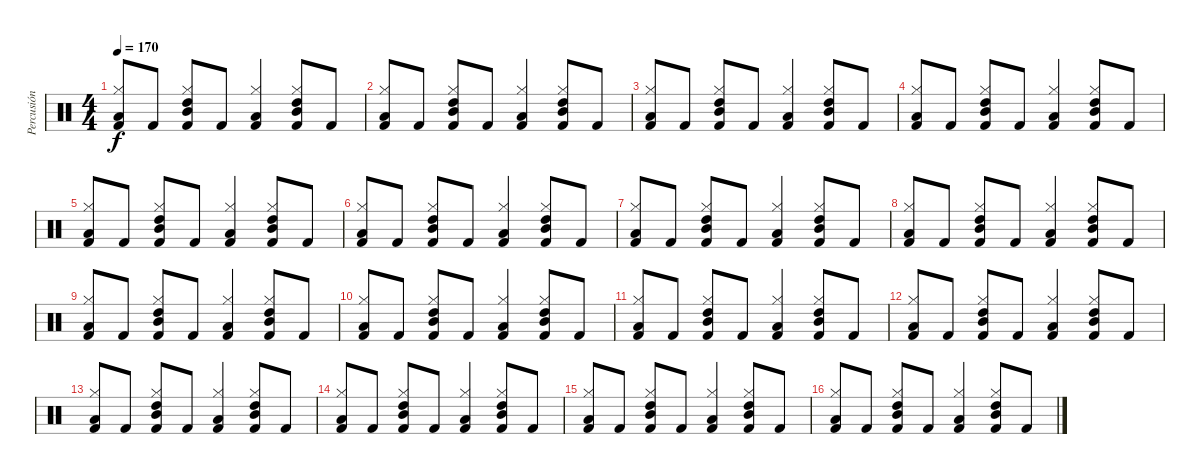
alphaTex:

\track ("Percusión" "Percusión") {instrument percussion}
\staff {score}
\articulation defaults
\ts (4 4)
\tempo 170
\clef neutral
\ks c
("Kick (hit) 2" "Hi-Hat (closed)" "Low Floor Tom (hit)").8{dy f} "Kick (hit) 2".8 ("Kick (hit) 2" "Hi-Hat (closed)" "Mid Tom (hit)" "High Tom (hit)").8 "Kick (hit) 2".8 ("Kick (hit) 2" "Hi-Hat (closed)" "Low Floor Tom (hit)").4 ("Kick (hit) 2" "Hi-Hat (closed)" "Mid Tom (hit)" "High Tom (hit)").8 "Kick (hit) 2".8 |
("Kick (hit) 2" "Hi-Hat (closed)" "Low Floor Tom (hit)").8 "Kick (hit) 2".8 ("Kick (hit) 2" "Hi-Hat (closed)" "Mid Tom (hit)" "High Tom (hit)").8 "Kick (hit) 2".8 ("Kick (hit) 2" "Hi-Hat (closed)" "Low Floor Tom (hit)").4 ("Kick (hit) 2" "Hi-Hat (closed)" "Mid Tom (hit)" "High Tom (hit)").8 "Kick (hit) 2".8 |
("Kick (hit) 2" "Hi-Hat (closed)" "Low Floor Tom (hit)").8 "Kick (hit) 2".8 ("Kick (hit) 2" "Hi-Hat (closed)" "Mid Tom (hit)" "High Tom (hit)").8 "Kick (hit) 2".8 ("Kick (hit) 2" "Hi-Hat (closed)" "Low Floor Tom (hit)").4 ("Kick (hit) 2" "Hi-Hat (closed)" "Mid Tom (hit)" "High Tom (hit)").8 "Kick (hit) 2".8 |
("Kick (hit) 2" "Hi-Hat (closed)" "Low Floor Tom (hit)").8 "Kick (hit) 2".8 ("Kick (hit) 2" "Hi-Hat (closed)" "Mid Tom (hit)" "High Tom (hit)").8 "Kick (hit) 2".8 ("Kick (hit) 2" "Hi-Hat (closed)" "Low Floor Tom (hit)").4 ("Kick (hit) 2" "Hi-Hat (closed)" "Mid Tom (hit)" "High Tom (hit)").8 "Kick (hit) 2".8 |
("Kick (hit) 2" "Hi-Hat (closed)" "Low Floor Tom (hit)").8 "Kick (hit) 2".8 ("Kick (hit) 2" "Hi-Hat (closed)" "Mid Tom (hit)" "High Tom (hit)").8 "Kick (hit) 2".8 ("Kick (hit) 2" "Hi-Hat (closed)" "Low Floor Tom (hit)").4 ("Kick (hit) 2" "Hi-Hat (closed)" "Mid Tom (hit)" "High Tom (hit)").8 "Kick (hit) 2".8 |
("Kick (hit) 2" "Hi-Hat (closed)" "Low Floor Tom (hit)").8 "Kick (hit) 2".8 ("Kick (hit) 2" "Hi-Hat (closed)" "Mid Tom (hit)" "High Tom (hit)").8 "Kick (hit) 2".8 ("Kick (hit) 2" "Hi-Hat (closed)" "Low Floor Tom (hit)").4 ("Kick (hit) 2" "Hi-Hat (closed)" "Mid Tom (hit)" "High Tom (hit)").8 "Kick (hit) 2".8 |
("Kick (hit) 2" "Hi-Hat (closed)" "Low Floor Tom (hit)").8 "Kick (hit) 2".8 ("Kick (hit) 2" "Hi-Hat (closed)" "Mid Tom (hit)" "High Tom (hit)").8 "Kick (hit) 2".8 ("Kick (hit) 2" "Hi-Hat (closed)" "Low Floor Tom (hit)").4 ("Kick (hit) 2" "Hi-Hat (closed)" "Mid Tom (hit)" "High Tom (hit)").8 "Kick (hit) 2".8 |
("Kick (hit) 2" "Hi-Hat (closed)" "Low Floor Tom (hit)").8 "Kick (hit) 2".8 ("Kick (hit) 2" "Hi-Hat (closed)" "Mid Tom (hit)" "High Tom (hit)").8 "Kick (hit) 2".8 ("Kick (hit) 2" "Hi-Hat (closed)" "Low Floor Tom (hit)").4 ("Kick (hit) 2" "Hi-Hat (closed)" "Mid Tom (hit)" "High Tom (hit)").8 "Kick (hit) 2".8 |
("Kick (hit) 2" "Hi-Hat (closed)" "Low Floor Tom (hit)").8 "Kick (hit) 2".8 ("Kick (hit) 2" "Hi-Hat (closed)" "Mid Tom (hit)" "High Tom (hit)").8 "Kick (hit) 2".8 ("Kick (hit) 2" "Hi-Hat (closed)" "Low Floor Tom (hit)").4 ("Kick (hit) 2" "Hi-Hat (closed)" "Mid Tom (hit)" "High Tom (hit)").8 "Kick (hit) 2".8 |
("Kick (hit) 2" "Hi-Hat (closed)" "Low Floor Tom (hit)").8 "Kick (hit) 2".8 ("Kick (hit) 2" "Hi-Hat (closed)" "Mid Tom (hit)" "High Tom (hit)").8 "Kick (hit) 2".8 ("Kick (hit) 2" "Hi-Hat (closed)" "Low Floor Tom (hit)").4 ("Kick (hit) 2" "Hi-Hat (closed)" "Mid Tom (hit)" "High Tom (hit)").8 "Kick (hit) 2".8 |
("Kick (hit) 2" "Hi-Hat (closed)" "Low Floor Tom (hit)").8 "Kick (hit) 2".8 ("Kick (hit) 2" "Hi-Hat (closed)" "Mid Tom (hit)" "High Tom (hit)").8 "Kick (hit) 2".8 ("Kick (hit) 2" "Hi-Hat (closed)" "Low Floor Tom (hit)").4 ("Kick (hit) 2" "Hi-Hat (closed)" "Mid Tom (hit)" "High Tom (hit)").8 "Kick (hit) 2".8 |
("Kick (hit) 2" "Hi-Hat (closed)" "Low Floor Tom (hit)").8 "Kick (hit) 2".8 ("Kick (hit) 2" "Hi-Hat (closed)" "Mid Tom (hit)" "High Tom (hit)").8 "Kick (hit) 2".8 ("Kick (hit) 2" "Hi-Hat (closed)" "Low Floor Tom (hit)").4 ("Kick (hit) 2" "Hi-Hat (closed)" "Mid Tom (hit)" "High Tom (hit)").8 "Kick (hit) 2".8 |
("Kick (hit) 2" "Hi-Hat (closed)" "Low Floor Tom (hit)").8 "Kick (hit) 2".8 ("Kick (hit) 2" "Hi-Hat (closed)" "Mid Tom (hit)" "High Tom (hit)").8 "Kick (hit) 2".8 ("Kick (hit) 2" "Hi-Hat (closed)" "Low Floor Tom (hit)").4 ("Kick (hit) 2" "Hi-Hat (closed)" "Mid Tom (hit)" "High Tom (hit)").8 "Kick (hit) 2".8 |
("Kick (hit) 2" "Hi-Hat (closed)" "Low Floor Tom (hit)").8 "Kick (hit) 2".8 ("Kick (hit) 2" "Hi-Hat (closed)" "Mid Tom (hit)" "High Tom (hit)").8 "Kick (hit) 2".8 ("Kick (hit) 2" "Hi-Hat (closed)" "Low Floor Tom (hit)").4 ("Kick (hit) 2" "Hi-Hat (closed)" "Mid Tom (hit)" "High Tom (hit)").8 "Kick (hit) 2".8 |
("Kick (hit) 2" "Hi-Hat (closed)" "Low Floor Tom (hit)").8 "Kick (hit) 2".8 ("Kick (hit) 2" "Hi-Hat (closed)" "Mid Tom (hit)" "High Tom (hit)").8 "Kick (hit) 2".8 ("Kick (hit) 2" "Hi-Hat (closed)" "Low Floor Tom (hit)").4 ("Kick (hit) 2" "Hi-Hat (closed)" "Mid Tom (hit)" "High Tom (hit)").8 "Kick (hit) 2".8 |
("Kick (hit) 2" "Hi-Hat (closed)" "Low Floor Tom (hit)").8 "Kick (hit) 2".8 ("Kick (hit) 2" "Hi-Hat (closed)" "Mid Tom (hit)" "High Tom (hit)").8 "Kick (hit) 2".8 ("Kick (hit) 2" "Hi-Hat (closed)" "Low Floor Tom (hit)").4 ("Kick (hit) 2" "Hi-Hat (closed)" "Mid Tom (hit)" "High Tom (hit)").8 "Kick (hit) 2".8
